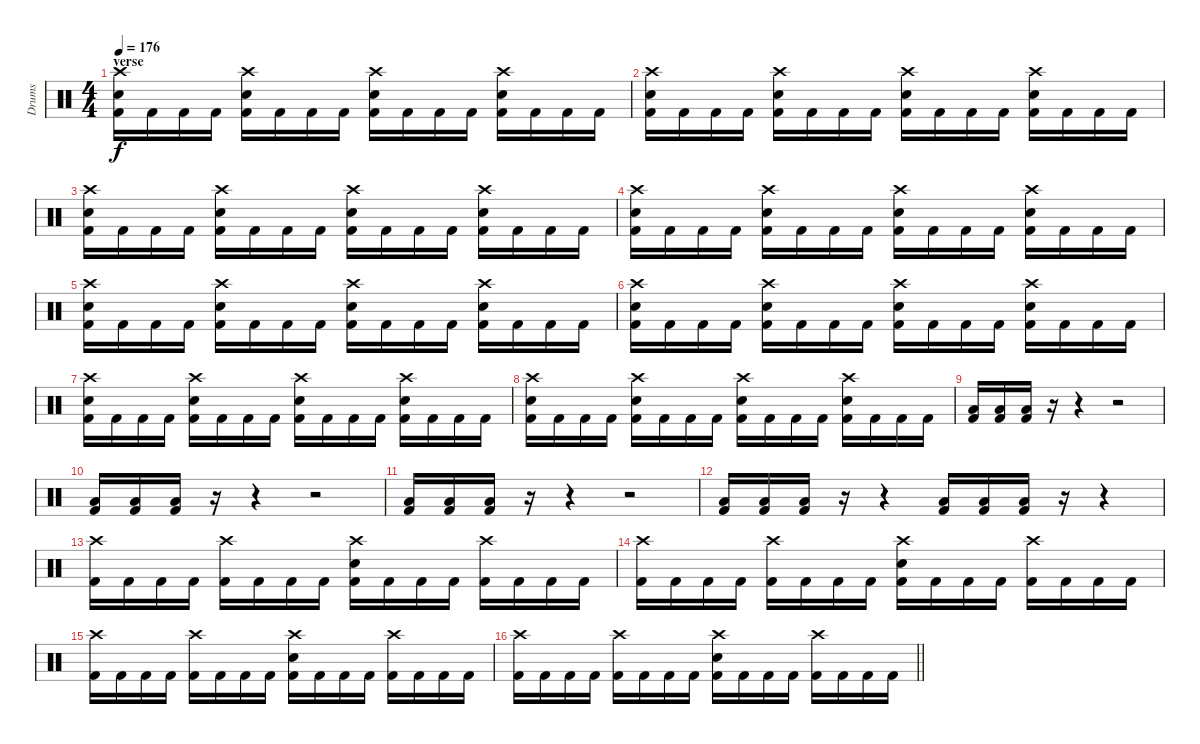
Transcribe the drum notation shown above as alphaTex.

\track ("Drums" "Drums") {instrument percussion}
\staff {score}
\articulation defaults
\ts (4 4)
\section ("" "verse")
\tempo 176
\clef neutral
\ks c
("Crash high (hit)" "Electric Snare (hit)" "Kick (hit) 2").16{dy f} "Kick (hit) 2".16 "Kick (hit) 2".16 "Kick (hit) 2".16 ("Crash high (hit)" "Electric Snare (hit)" "Kick (hit) 2").16 "Kick (hit) 2".16 "Kick (hit) 2".16 "Kick (hit) 2".16 ("Crash high (hit)" "Electric Snare (hit)" "Kick (hit) 2").16 "Kick (hit) 2".16 "Kick (hit) 2".16 "Kick (hit) 2".16 ("Crash high (hit)" "Electric Snare (hit)" "Kick (hit) 2").16 "Kick (hit) 2".16 "Kick (hit) 2".16 "Kick (hit) 2".16 |
("Crash high (hit)" "Electric Snare (hit)" "Kick (hit) 2").16 "Kick (hit) 2".16 "Kick (hit) 2".16 "Kick (hit) 2".16 ("Crash high (hit)" "Electric Snare (hit)" "Kick (hit) 2").16 "Kick (hit) 2".16 "Kick (hit) 2".16 "Kick (hit) 2".16 ("Crash high (hit)" "Electric Snare (hit)" "Kick (hit) 2").16 "Kick (hit) 2".16 "Kick (hit) 2".16 "Kick (hit) 2".16 ("Crash high (hit)" "Electric Snare (hit)" "Kick (hit) 2").16 "Kick (hit) 2".16 "Kick (hit) 2".16 "Kick (hit) 2".16 |
("Crash high (hit)" "Electric Snare (hit)" "Kick (hit) 2").16 "Kick (hit) 2".16 "Kick (hit) 2".16 "Kick (hit) 2".16 ("Crash high (hit)" "Electric Snare (hit)" "Kick (hit) 2").16 "Kick (hit) 2".16 "Kick (hit) 2".16 "Kick (hit) 2".16 ("Crash high (hit)" "Electric Snare (hit)" "Kick (hit) 2").16 "Kick (hit) 2".16 "Kick (hit) 2".16 "Kick (hit) 2".16 ("Crash high (hit)" "Electric Snare (hit)" "Kick (hit) 2").16 "Kick (hit) 2".16 "Kick (hit) 2".16 "Kick (hit) 2".16 |
("Crash high (hit)" "Electric Snare (hit)" "Kick (hit) 2").16 "Kick (hit) 2".16 "Kick (hit) 2".16 "Kick (hit) 2".16 ("Crash high (hit)" "Electric Snare (hit)" "Kick (hit) 2").16 "Kick (hit) 2".16 "Kick (hit) 2".16 "Kick (hit) 2".16 ("Crash high (hit)" "Electric Snare (hit)" "Kick (hit) 2").16 "Kick (hit) 2".16 "Kick (hit) 2".16 "Kick (hit) 2".16 ("Crash high (hit)" "Electric Snare (hit)" "Kick (hit) 2").16 "Kick (hit) 2".16 "Kick (hit) 2".16 "Kick (hit) 2".16 |
("Crash high (hit)" "Electric Snare (hit)" "Kick (hit) 2").16 "Kick (hit) 2".16 "Kick (hit) 2".16 "Kick (hit) 2".16 ("Crash high (hit)" "Electric Snare (hit)" "Kick (hit) 2").16 "Kick (hit) 2".16 "Kick (hit) 2".16 "Kick (hit) 2".16 ("Crash high (hit)" "Electric Snare (hit)" "Kick (hit) 2").16 "Kick (hit) 2".16 "Kick (hit) 2".16 "Kick (hit) 2".16 ("Crash high (hit)" "Electric Snare (hit)" "Kick (hit) 2").16 "Kick (hit) 2".16 "Kick (hit) 2".16 "Kick (hit) 2".16 |
("Crash high (hit)" "Electric Snare (hit)" "Kick (hit) 2").16 "Kick (hit) 2".16 "Kick (hit) 2".16 "Kick (hit) 2".16 ("Crash high (hit)" "Electric Snare (hit)" "Kick (hit) 2").16 "Kick (hit) 2".16 "Kick (hit) 2".16 "Kick (hit) 2".16 ("Crash high (hit)" "Electric Snare (hit)" "Kick (hit) 2").16 "Kick (hit) 2".16 "Kick (hit) 2".16 "Kick (hit) 2".16 ("Crash high (hit)" "Electric Snare (hit)" "Kick (hit) 2").16 "Kick (hit) 2".16 "Kick (hit) 2".16 "Kick (hit) 2".16 |
("Crash high (hit)" "Electric Snare (hit)" "Kick (hit) 2").16 "Kick (hit) 2".16 "Kick (hit) 2".16 "Kick (hit) 2".16 ("Crash high (hit)" "Electric Snare (hit)" "Kick (hit) 2").16 "Kick (hit) 2".16 "Kick (hit) 2".16 "Kick (hit) 2".16 ("Crash high (hit)" "Electric Snare (hit)" "Kick (hit) 2").16 "Kick (hit) 2".16 "Kick (hit) 2".16 "Kick (hit) 2".16 ("Crash high (hit)" "Electric Snare (hit)" "Kick (hit) 2").16 "Kick (hit) 2".16 "Kick (hit) 2".16 "Kick (hit) 2".16 |
("Crash high (hit)" "Electric Snare (hit)" "Kick (hit) 2").16 "Kick (hit) 2".16 "Kick (hit) 2".16 "Kick (hit) 2".16 ("Crash high (hit)" "Electric Snare (hit)" "Kick (hit) 2").16 "Kick (hit) 2".16 "Kick (hit) 2".16 "Kick (hit) 2".16 ("Crash high (hit)" "Electric Snare (hit)" "Kick (hit) 2").16 "Kick (hit) 2".16 "Kick (hit) 2".16 "Kick (hit) 2".16 ("Crash high (hit)" "Electric Snare (hit)" "Kick (hit) 2").16 "Kick (hit) 2".16 "Kick (hit) 2".16 "Kick (hit) 2".16 |
("Low Tom (hit)" "Kick (hit) 2").16 ("Low Tom (hit)" "Kick (hit) 2").16 ("Low Tom (hit)" "Kick (hit) 2").16 r.16 r.4 r.2 |
("Low Tom (hit)" "Kick (hit) 2").16 ("Low Tom (hit)" "Kick (hit) 2").16 ("Low Tom (hit)" "Kick (hit) 2").16 r.16 r.4 r.2 |
("Low Tom (hit)" "Kick (hit) 2").16 ("Low Tom (hit)" "Kick (hit) 2").16 ("Low Tom (hit)" "Kick (hit) 2").16 r.16 r.4 r.2 |
("Low Tom (hit)" "Kick (hit) 2").16 ("Low Tom (hit)" "Kick (hit) 2").16 ("Low Tom (hit)" "Kick (hit) 2").16 r.16 r.4 ("Low Tom (hit)" "Kick (hit) 2").16 ("Low Tom (hit)" "Kick (hit) 2").16 ("Low Tom (hit)" "Kick (hit) 2").16 r.16 r.4 |
("Crash high (hit)" "Kick (hit) 2").16 "Kick (hit) 2".16 "Kick (hit) 2".16 "Kick (hit) 2".16 ("Crash high (hit)" "Kick (hit) 2").16 "Kick (hit) 2".16 "Kick (hit) 2".16 "Kick (hit) 2".16 ("Crash high (hit)" "Electric Snare (hit)" "Kick (hit) 2").16 "Kick (hit) 2".16 "Kick (hit) 2".16 "Kick (hit) 2".16 ("Crash high (hit)" "Kick (hit) 2").16 "Kick (hit) 2".16 "Kick (hit) 2".16 "Kick (hit) 2".16 |
("Crash high (hit)" "Kick (hit) 2").16 "Kick (hit) 2".16 "Kick (hit) 2".16 "Kick (hit) 2".16 ("Crash high (hit)" "Kick (hit) 2").16 "Kick (hit) 2".16 "Kick (hit) 2".16 "Kick (hit) 2".16 ("Crash high (hit)" "Electric Snare (hit)" "Kick (hit) 2").16 "Kick (hit) 2".16 "Kick (hit) 2".16 "Kick (hit) 2".16 ("Crash high (hit)" "Kick (hit) 2").16 "Kick (hit) 2".16 "Kick (hit) 2".16 "Kick (hit) 2".16 |
("Crash high (hit)" "Kick (hit) 2").16 "Kick (hit) 2".16 "Kick (hit) 2".16 "Kick (hit) 2".16 ("Crash high (hit)" "Kick (hit) 2").16 "Kick (hit) 2".16 "Kick (hit) 2".16 "Kick (hit) 2".16 ("Crash high (hit)" "Electric Snare (hit)" "Kick (hit) 2").16 "Kick (hit) 2".16 "Kick (hit) 2".16 "Kick (hit) 2".16 ("Crash high (hit)" "Kick (hit) 2").16 "Kick (hit) 2".16 "Kick (hit) 2".16 "Kick (hit) 2".16 |
\barLineRight lightlight
("Crash high (hit)" "Kick (hit) 2").16 "Kick (hit) 2".16 "Kick (hit) 2".16 "Kick (hit) 2".16 ("Crash high (hit)" "Kick (hit) 2").16 "Kick (hit) 2".16 "Kick (hit) 2".16 "Kick (hit) 2".16 ("Crash high (hit)" "Electric Snare (hit)" "Kick (hit) 2").16 "Kick (hit) 2".16 "Kick (hit) 2".16 "Kick (hit) 2".16 ("Crash high (hit)" "Kick (hit) 2").16 "Kick (hit) 2".16 "Kick (hit) 2".16 "Kick (hit) 2".16
